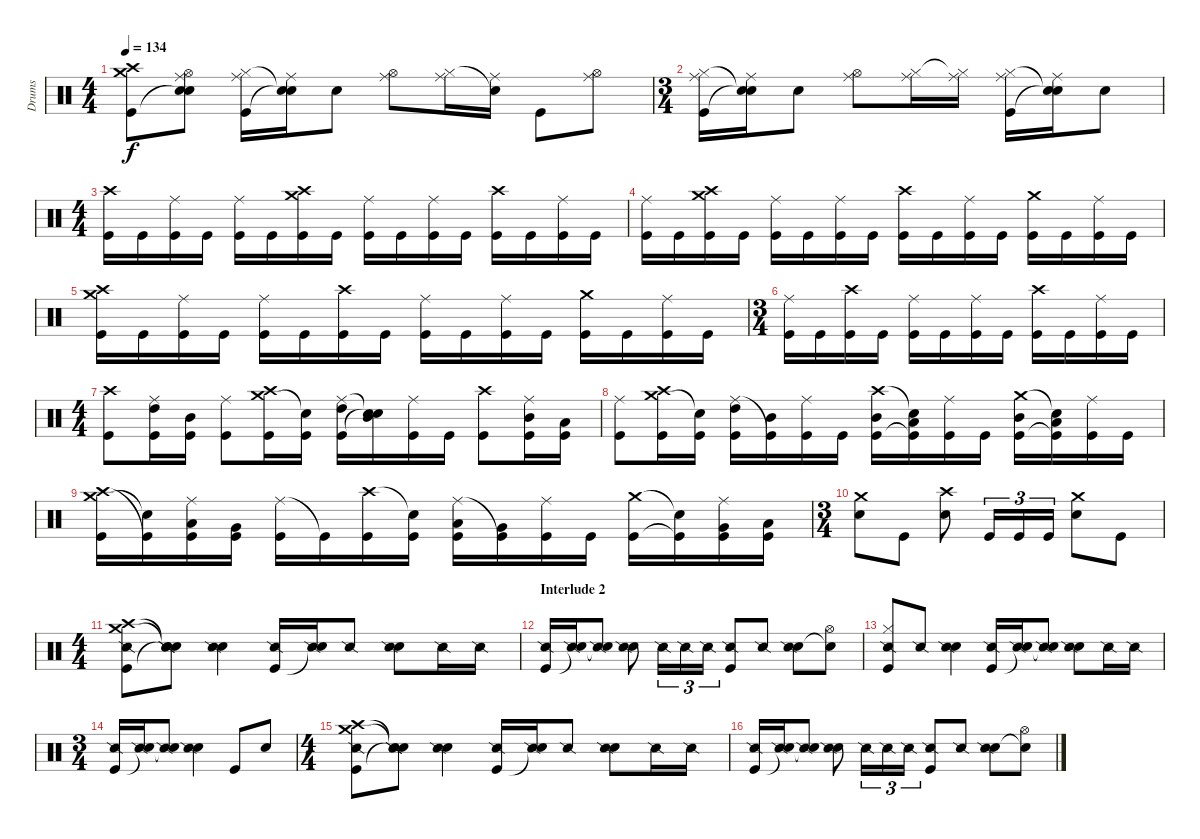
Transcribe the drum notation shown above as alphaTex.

\track ("Drums" "Drums") {instrument percussion}
\staff {score}
\articulation defaults
\ts (4 4)
\tempo 134
\clef neutral
\ks c
("Crash high (hit)" "Crash medium (hit)" "Kick (hit)").8{dy f} ("Hi-Hat (open)" "Ride (middle)" "Snare (hit)"{t} "Snare (hit)"{t}).8 ("Hi-Hat (closed)" "Ride (middle)" "Kick (hit)").16 ("Snare (hit)"{t} "Ride (middle)" "Snare (hit)"{t}).16 "Electric Snare (hit)".8 ("Hi-Hat (open)" "Ride (middle)").8 ("Hi-Hat (closed)" "Ride (middle)").16 ("Snare (hit)"{t} "Ride (middle)").16 "Kick (hit)".8 ("Hi-Hat (open)" "Ride (middle)").8 |
\ts (3 4)
("Hi-Hat (closed)" "Ride (middle)" "Kick (hit)").16 ("Snare (hit)"{t} "Ride (middle)" "Snare (hit)"{t}).16 "Electric Snare (hit)".8 ("Hi-Hat (open)" "Ride (middle)").8 ("Hi-Hat (closed)" "Ride (middle)").16 ("Hi-Hat (closed)"{t} "Ride (middle)").16 ("Hi-Hat (closed)" "Ride (middle)" "Kick (hit)").16 ("Snare (hit)"{t} "Ride (middle)" "Snare (hit)"{t}).16 "Electric Snare (hit)".8 |
\ts (4 4)
("Crash high (hit)" "Kick (hit)").16 "Kick (hit)".16 ("Ride (middle)" "Kick (hit)").16 "Kick (hit)".16 ("Ride (middle)" "Kick (hit)").16 "Kick (hit)".16 ("Crash medium (hit)" "Crash high (hit)" "Kick (hit)").16 "Kick (hit)".16 ("Ride (middle)" "Kick (hit)").16 "Kick (hit)".16 ("Ride (middle)" "Kick (hit)").16 "Kick (hit)".16 ("Crash high (hit)" "Kick (hit)").16 "Kick (hit)".16 ("Ride (middle)" "Kick (hit)").16 "Kick (hit)".16 |
("Ride (middle)" "Kick (hit)").16 "Kick (hit)".16 ("Crash medium (hit)" "Crash high (hit)" "Kick (hit)").16 "Kick (hit)".16 ("Ride (middle)" "Kick (hit)").16 "Kick (hit)".16 ("Ride (middle)" "Kick (hit)").16 "Kick (hit)".16 ("Crash high (hit)" "Kick (hit)").16 "Kick (hit)".16 ("Ride (middle)" "Kick (hit)").16 "Kick (hit)".16 ("Crash medium (hit)" "Kick (hit)").16 "Kick (hit)".16 ("Ride (middle)" "Kick (hit)").16 "Kick (hit)".16 |
("Crash medium (hit)" "Crash high (hit)" "Kick (hit)").16 "Kick (hit)".16 ("Ride (middle)" "Kick (hit)").16 "Kick (hit)".16 ("Ride (middle)" "Kick (hit)").16 "Kick (hit)".16 ("Crash high (hit)" "Kick (hit)").16 "Kick (hit)".16 ("Ride (middle)" "Kick (hit)").16 "Kick (hit)".16 ("Ride (middle)" "Kick (hit)").16 "Kick (hit)".16 ("Crash medium (hit)" "Kick (hit)").16 "Kick (hit)".16 ("Ride (middle)" "Kick (hit)").16 "Kick (hit)".16 |
\ts (3 4)
("Ride (middle)" "Kick (hit)").16 "Kick (hit)".16 ("Crash high (hit)" "Kick (hit)").16 "Kick (hit)".16 ("Ride (middle)" "Kick (hit)").16 "Kick (hit)".16 ("Ride (middle)" "Kick (hit)").16 "Kick (hit)".16 ("Crash high (hit)" "Kick (hit)").16 "Kick (hit)".16 ("Ride (middle)" "Kick (hit)").16 "Kick (hit)".16 |
\ts (4 4)
("Crash high (hit)" "Kick (hit)").8 ("High Tom (hit)" "Ride (middle)" "Kick (hit)").16 ("Mid Tom (hit)" "Kick (hit)").16 ("Ride (middle)" "Kick (hit)").8 ("Crash medium (hit)" "Crash high (hit)" "Kick (hit)").16 ("Snare (hit)"{t} "Kick (hit)").16 ("High Tom (hit)" "Ride (middle)" "Kick (hit)").16 ("Mid Tom (hit)" "Snare (hit)"{t} "Snare (hit)"{t}).16 ("Ride (middle)" "Kick (hit)").16 "Kick (hit)".16 ("Crash high (hit)" "Kick (hit)").8 ("Mid Tom (hit)" "Ride (middle)" "Kick (hit)").16 ("Low Tom (hit)" "Kick (hit)").16 |
("Ride (middle)" "Kick (hit)").8 ("Crash medium (hit)" "Crash high (hit)" "Kick (hit)").16 ("Snare (hit)"{t} "Kick (hit)").16 ("High Tom (hit)" "Ride (middle)" "Kick (hit)").16 ("Mid Tom (hit)" "Kick (hit)"{t}).16 ("Ride (middle)" "Kick (hit)").16 "Kick (hit)".16 ("Mid Tom (hit)" "Crash high (hit)" "Kick (hit)").16 ("Low Tom (hit)" "Snare (hit)"{t} "Kick (hit)"{t}).16 ("Ride (middle)" "Kick (hit)").16 "Kick (hit)".16 ("Mid Tom (hit)" "Crash medium (hit)" "Kick (hit)").16 ("Low Tom (hit)" "Snare (hit)"{t} "Kick (hit)"{t}).16 ("Ride (middle)" "Kick (hit)").16 "Kick (hit)".16 |
("Crash medium (hit)" "Crash high (hit)" "Kick (hit)").16 ("Snare (hit)"{t} "Kick (hit)"{t}).16 ("Low Tom (hit)" "Ride (middle)" "Kick (hit)").16 ("Very Low Tom (hit)" "Kick (hit)").16 ("Ride (middle)" "Kick (hit)").16 "Kick (hit)"{t}.16 ("Crash high (hit)" "Kick (hit)").16 ("Snare (hit)"{t} "Kick (hit)").16 ("Low Tom (hit)" "Ride (middle)" "Kick (hit)").16 ("Very Low Tom (hit)" "Kick (hit)"{t}).16 ("Ride (middle)" "Kick (hit)").16 "Kick (hit)".16 ("Crash medium (hit)" "Kick (hit)").16 ("Snare (hit)"{t} "Kick (hit)"{t}).16 ("Very Low Tom (hit)" "Ride (middle)" "Kick (hit)").16 ("Low Floor Tom (hit)" "Kick (hit)").16 |
\ts (3 4)
("Electric Snare (hit)" "Crash medium (hit)").8 "Kick (hit)".8 ("Electric Snare (hit)" "Crash high (hit)").8 "Kick (hit)".16{tu (3 2)} "Kick (hit)".16{tu (3 2)} "Kick (hit)".16{tu (3 2)} ("Electric Snare (hit)" "Crash medium (hit)").8 "Kick (hit)".8 |
\ts (4 4)
("Crash medium (hit)" "Crash high (hit)" "Snare (side stick) 2" "Kick (hit)").8 ("Snare (hit)"{t} "Snare (side stick) 2"{t} "Snare (side stick) 2" "Snare (hit)"{t}).8 ("Electric Snare (hit)" "Snare (side stick) 2").4 ("Snare (side stick) 2" "Kick (hit)").16 ("Snare (side stick) 2" "Snare (hit)"{t}).16 "Snare (side stick) 2".8 ("Electric Snare (hit)" "Snare (side stick) 2").8 "Snare (side stick) 2".16 "Snare (side stick) 2".16 |
\section ("" "Interlude 2")
("Snare (side stick) 2" "Kick (hit)").16 ("Snare (side stick) 2" "Snare (hit)"{t}).16 ("Snare (side stick) 2" "Snare (hit)"{t}).8 ("Electric Snare (hit)" "Snare (side stick) 2").8 "Snare (side stick) 2".16{tu (3 2)} "Snare (side stick) 2".16{tu (3 2)} "Snare (side stick) 2".16{tu (3 2)} ("Snare (side stick) 2" "Kick (hit)").8 "Snare (side stick) 2".8 ("Electric Snare (hit)" "Snare (side stick) 2").8 ("Snare (hit)"{t} "Hi-Hat (open)").8 |
("Snare (side stick) 2" "Hi-Hat (closed)" "Kick (hit)").8 "Snare (side stick) 2".8 ("Electric Snare (hit)" "Snare (side stick) 2").4 ("Snare (side stick) 2" "Kick (hit)").16 ("Snare (side stick) 2" "Snare (hit)"{t}).16 ("Snare (side stick) 2" "Snare (hit)"{t}).8 ("Electric Snare (hit)" "Snare (side stick) 2").8 "Snare (side stick) 2".16 "Snare (side stick) 2".16 |
\ts (3 4)
("Snare (side stick) 2" "Kick (hit)").16 ("Snare (side stick) 2" "Snare (hit)"{t}).16 ("Snare (side stick) 2" "Snare (hit)"{t}).8 ("Electric Snare (hit)" "Snare (side stick) 2").4 "Kick (hit)".8 "Electric Snare (hit)".8 |
\ts (4 4)
("Crash medium (hit)" "Crash high (hit)" "Snare (side stick) 2" "Kick (hit)").8 ("Snare (hit)"{t} "Snare (side stick) 2"{t} "Snare (side stick) 2" "Snare (hit)"{t}).8 ("Electric Snare (hit)" "Snare (side stick) 2").4 ("Snare (side stick) 2" "Kick (hit)").16 ("Snare (side stick) 2" "Snare (hit)"{t}).16 "Snare (side stick) 2".8 ("Electric Snare (hit)" "Snare (side stick) 2").8 "Snare (side stick) 2".16 "Snare (side stick) 2".16 |
("Snare (side stick) 2" "Kick (hit)").16 ("Snare (side stick) 2" "Snare (hit)"{t}).16 ("Snare (side stick) 2" "Snare (hit)"{t}).8 ("Electric Snare (hit)" "Snare (side stick) 2").8 "Snare (side stick) 2".16{tu (3 2)} "Snare (side stick) 2".16{tu (3 2)} "Snare (side stick) 2".16{tu (3 2)} ("Snare (side stick) 2" "Kick (hit)").8 "Snare (side stick) 2".8 ("Electric Snare (hit)" "Snare (side stick) 2").8 ("Snare (hit)"{t} "Hi-Hat (open)").8
